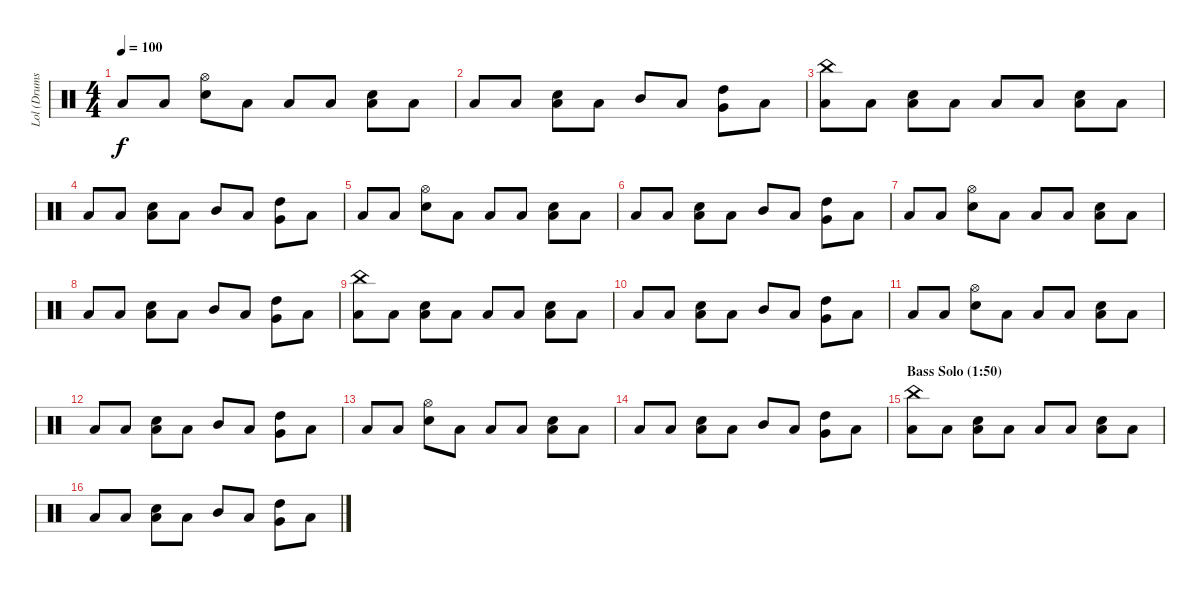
\track ("Lol (Drums)" "Lol (Drums") {instrument percussion}
\staff {score}
\articulation defaults
\ts (4 4)
\tempo 100
\clef neutral
\ks c "Low Tom (hit)".8{dy f} "Low Tom (hit)".8
("Hi-Hat (open)" "Snare (hit) 2").8 "Low Tom (hit)".8 "Low Tom (hit)".8 "Low Tom (hit)".8 ("Low Tom (hit)" "Snare (hit) 2").8 "Low Tom (hit)".8 |
"Low Tom (hit)".8 "Low Tom (hit)".8 ("Low Tom (hit)" "Snare (hit) 2").8 "Low Tom (hit)".8 "Mid Tom (hit)".8 "Low Tom (hit)".8 ("High Tom (hit)" "Very Low Tom (hit)").8 "Low Floor Tom (hit)".8 |
("China (hit)" "Low Tom (hit)").8 "Low Tom (hit)".8 ("Low Tom (hit)" "Snare (hit) 2").8 "Low Tom (hit)".8 "Low Tom (hit)".8 "Low Tom (hit)".8 ("Low Tom (hit)" "Snare (hit) 2").8 "Low Tom (hit)".8 |
"Low Tom (hit)".8 "Low Tom (hit)".8 ("Low Tom (hit)" "Snare (hit) 2").8 "Low Tom (hit)".8 "Mid Tom (hit)".8 "Low Tom (hit)".8 ("High Tom (hit)" "Very Low Tom (hit)").8 "Low Floor Tom (hit)".8 |
"Low Tom (hit)".8 "Low Tom (hit)".8 ("Hi-Hat (open)" "Snare (hit) 2").8 "Low Tom (hit)".8 "Low Tom (hit)".8 "Low Tom (hit)".8 ("Low Tom (hit)" "Snare (hit) 2").8 "Low Tom (hit)".8 |
"Low Tom (hit)".8 "Low Tom (hit)".8 ("Low Tom (hit)" "Snare (hit) 2").8 "Low Tom (hit)".8 "Mid Tom (hit)".8 "Low Tom (hit)".8 ("High Tom (hit)" "Very Low Tom (hit)").8 "Low Floor Tom (hit)".8 |
"Low Tom (hit)".8 "Low Tom (hit)".8 ("Hi-Hat (open)" "Snare (hit) 2").8 "Low Tom (hit)".8 "Low Tom (hit)".8 "Low Tom (hit)".8 ("Low Tom (hit)" "Snare (hit) 2").8 "Low Tom (hit)".8 |
"Low Tom (hit)".8 "Low Tom (hit)".8 ("Low Tom (hit)" "Snare (hit) 2").8 "Low Tom (hit)".8 "Mid Tom (hit)".8 "Low Tom (hit)".8 ("High Tom (hit)" "Very Low Tom (hit)").8 "Low Floor Tom (hit)".8 |
("China (hit)" "Low Tom (hit)").8 "Low Tom (hit)".8 ("Low Tom (hit)" "Snare (hit) 2").8 "Low Tom (hit)".8 "Low Tom (hit)".8 "Low Tom (hit)".8 ("Low Tom (hit)" "Snare (hit) 2").8 "Low Tom (hit)".8 |
"Low Tom (hit)".8 "Low Tom (hit)".8 ("Low Tom (hit)" "Snare (hit) 2").8 "Low Tom (hit)".8 "Mid Tom (hit)".8 "Low Tom (hit)".8 ("High Tom (hit)" "Very Low Tom (hit)").8 "Low Floor Tom (hit)".8 |
"Low Tom (hit)".8 "Low Tom (hit)".8 ("Hi-Hat (open)" "Snare (hit) 2").8 "Low Tom (hit)".8 "Low Tom (hit)".8 "Low Tom (hit)".8 ("Low Tom (hit)" "Snare (hit) 2").8 "Low Tom (hit)".8 |
"Low Tom (hit)".8 "Low Tom (hit)".8 ("Low Tom (hit)" "Snare (hit) 2").8 "Low Tom (hit)".8 "Mid Tom (hit)".8 "Low Tom (hit)".8 ("High Tom (hit)" "Very Low Tom (hit)").8 "Low Floor Tom (hit)".8 |
"Low Tom (hit)".8 "Low Tom (hit)".8 ("Hi-Hat (open)" "Snare (hit) 2").8 "Low Tom (hit)".8 "Low Tom (hit)".8 "Low Tom (hit)".8 ("Low Tom (hit)" "Snare (hit) 2").8 "Low Tom (hit)".8 |
"Low Tom (hit)".8 "Low Tom (hit)".8 ("Low Tom (hit)" "Snare (hit) 2").8 "Low Tom (hit)".8 "Mid Tom (hit)".8 "Low Tom (hit)".8 ("High Tom (hit)" "Very Low Tom (hit)").8 "Low Floor Tom (hit)".8 |
\section ("" "Bass Solo (1:50)")
("China (hit)" "Low Tom (hit)").8 "Low Tom (hit)".8 ("Low Tom (hit)" "Snare (hit) 2").8 "Low Tom (hit)".8 "Low Tom (hit)".8 "Low Tom (hit)".8 ("Low Tom (hit)" "Snare (hit) 2").8 "Low Tom (hit)".8 |
"Low Tom (hit)".8 "Low Tom (hit)".8 ("Low Tom (hit)" "Snare (hit) 2").8 "Low Tom (hit)".8 "Mid Tom (hit)".8 "Low Tom (hit)".8 ("High Tom (hit)" "Very Low Tom (hit)").8 "Low Floor Tom (hit)".8
